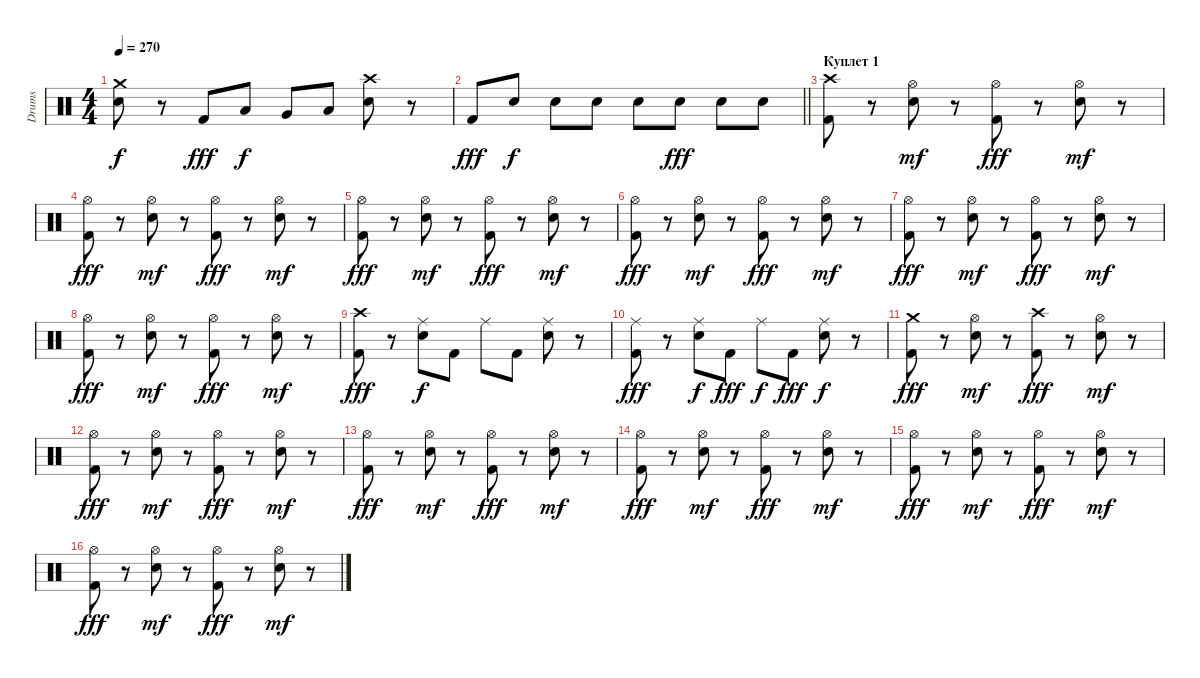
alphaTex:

\track ("Drums" "Drums") {instrument percussion}
\staff {score}
\articulation defaults
\ts (4 4)
\tempo 270
\clef neutral
\ks c
("Crash medium (hit)" "Electric Snare (hit)").8{dy f} r.8 "Kick (hit) 2".8{dy fff} "Low Tom (hit)".8{dy f} "Very Low Tom (hit)".8 "Low Floor Tom (hit)".8 ("Crash high (hit)" "Electric Snare (hit)").8 r.8 |
\barLineRight lightlight "Kick (hit) 2".8{dy fff} "Electric Snare (hit)".8{dy f} "Electric Snare (hit)".8 "Electric Snare (hit)".8 "Electric Snare (hit)".8 "Electric Snare (hit)".8{dy fff} "Electric Snare (hit)".8 "Electric Snare (hit)".8
|
\section ("" "Куплет 1")
("Crash high (hit)" "Kick (hit) 2").8 r.8 ("Hi-Hat (open)" "Electric Snare (hit)").8{dy mf} r.8 ("Hi-Hat (open)" "Kick (hit) 2").8{dy fff} r.8 ("Hi-Hat (open)" "Electric Snare (hit)").8{dy mf} r.8 |
("Hi-Hat (open)" "Kick (hit) 2").8{dy fff} r.8 ("Hi-Hat (open)" "Electric Snare (hit)").8{dy mf} r.8 ("Hi-Hat (open)" "Kick (hit) 2").8{dy fff} r.8 ("Hi-Hat (open)" "Electric Snare (hit)").8{dy mf} r.8 |
("Hi-Hat (open)" "Kick (hit) 2").8{dy fff} r.8 ("Hi-Hat (open)" "Electric Snare (hit)").8{dy mf} r.8 ("Hi-Hat (open)" "Kick (hit) 2").8{dy fff} r.8 ("Hi-Hat (open)" "Electric Snare (hit)").8{dy mf} r.8 |
("Hi-Hat (open)" "Kick (hit) 2").8{dy fff} r.8 ("Hi-Hat (open)" "Electric Snare (hit)").8{dy mf} r.8 ("Hi-Hat (open)" "Kick (hit) 2").8{dy fff} r.8 ("Hi-Hat (open)" "Electric Snare (hit)").8{dy mf} r.8 |
("Hi-Hat (open)" "Kick (hit) 2").8{dy fff} r.8 ("Hi-Hat (open)" "Electric Snare (hit)").8{dy mf} r.8 ("Hi-Hat (open)" "Kick (hit) 2").8{dy fff} r.8 ("Hi-Hat (open)" "Electric Snare (hit)").8{dy mf} r.8 |
("Hi-Hat (open)" "Kick (hit) 2").8{dy fff} r.8 ("Hi-Hat (open)" "Electric Snare (hit)").8{dy mf} r.8 ("Hi-Hat (open)" "Kick (hit) 2").8{dy fff} r.8 ("Hi-Hat (open)" "Electric Snare (hit)").8{dy mf} r.8 |
("Crash high (hit)" "Kick (hit) 2").8{dy fff} r.8 ("Ride (middle)" "Electric Snare (hit)").8{dy f} "Kick (hit) 2".8 "Ride (middle)".8 "Kick (hit) 2".8 ("Ride (middle)" "Electric Snare (hit)").8 r.8 |
("Ride (middle)" "Kick (hit) 2").8{dy fff} r.8 ("Ride (middle)" "Electric Snare (hit)").8{dy f} "Kick (hit) 2".8{dy fff} "Ride (middle)".8{dy f} "Kick (hit) 2".8{dy fff} ("Ride (middle)" "Electric Snare (hit)").8{dy f} r.8 |
("Crash medium (hit)" "Kick (hit) 2").8{dy fff} r.8 ("Hi-Hat (open)" "Electric Snare (hit)").8{dy mf} r.8 ("Crash high (hit)" "Kick (hit) 2").8{dy fff} r.8 ("Hi-Hat (open)" "Electric Snare (hit)").8{dy mf} r.8 |
("Hi-Hat (open)" "Kick (hit) 2").8{dy fff} r.8 ("Hi-Hat (open)" "Electric Snare (hit)").8{dy mf} r.8 ("Hi-Hat (open)" "Kick (hit) 2").8{dy fff} r.8 ("Hi-Hat (open)" "Electric Snare (hit)").8{dy mf} r.8 |
("Hi-Hat (open)" "Kick (hit) 2").8{dy fff} r.8 ("Hi-Hat (open)" "Electric Snare (hit)").8{dy mf} r.8 ("Hi-Hat (open)" "Kick (hit) 2").8{dy fff} r.8 ("Hi-Hat (open)" "Electric Snare (hit)").8{dy mf} r.8 |
("Hi-Hat (open)" "Kick (hit) 2").8{dy fff} r.8 ("Hi-Hat (open)" "Electric Snare (hit)").8{dy mf} r.8 ("Hi-Hat (open)" "Kick (hit) 2").8{dy fff} r.8 ("Hi-Hat (open)" "Electric Snare (hit)").8{dy mf} r.8 |
("Hi-Hat (open)" "Kick (hit) 2").8{dy fff} r.8 ("Hi-Hat (open)" "Electric Snare (hit)").8{dy mf} r.8 ("Hi-Hat (open)" "Kick (hit) 2").8{dy fff} r.8 ("Hi-Hat (open)" "Electric Snare (hit)").8{dy mf} r.8 |
("Hi-Hat (open)" "Kick (hit) 2").8{dy fff} r.8 ("Hi-Hat (open)" "Electric Snare (hit)").8{dy mf} r.8 ("Hi-Hat (open)" "Kick (hit) 2").8{dy fff} r.8 ("Hi-Hat (open)" "Electric Snare (hit)").8{dy mf} r.8
